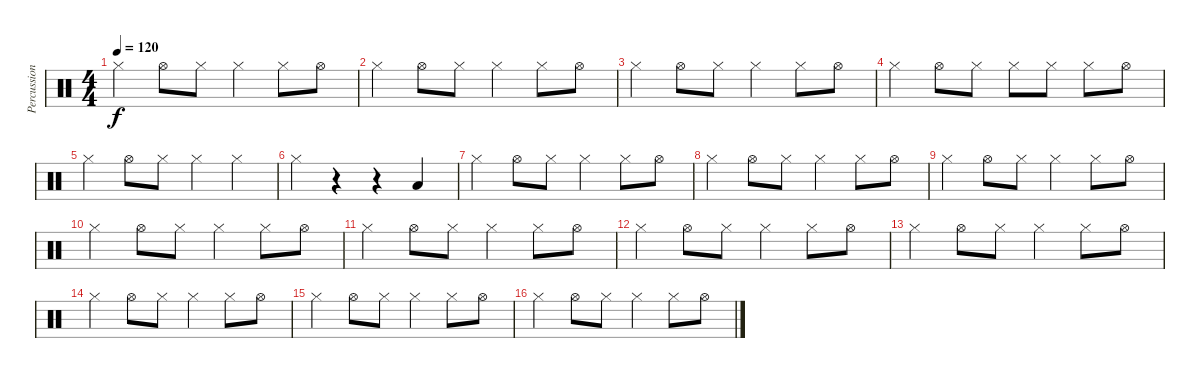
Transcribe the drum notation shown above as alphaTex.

\track ("Percussion" "Percussion") {instrument percussion}
\staff {score}
\articulation defaults
\ts (4 4)
\tempo 120
\clef neutral
\ks aminor "Hi-Hat (closed)".4{dy f} "Hi-Hat (open)".8 "Hi-Hat (closed)".8 "Hi-Hat (closed)".4 "Hi-Hat (closed)".8 "Hi-Hat (open)".8
|
"Hi-Hat (closed)".4 "Hi-Hat (open)".8 "Hi-Hat (closed)".8 "Hi-Hat (closed)".4 "Hi-Hat (closed)".8 "Hi-Hat (open)".8 |
"Hi-Hat (closed)".4 "Hi-Hat (open)".8 "Hi-Hat (closed)".8 "Hi-Hat (closed)".4 "Hi-Hat (closed)".8 "Hi-Hat (open)".8 |
"Hi-Hat (closed)".4 "Hi-Hat (open)".8 "Hi-Hat (closed)".8 "Hi-Hat (closed)".8 "Hi-Hat (closed)".8 "Hi-Hat (closed)".8 "Hi-Hat (open)".8 |
"Hi-Hat (closed)".4 "Hi-Hat (open)".8 "Hi-Hat (closed)".8 "Hi-Hat (closed)".4 "Hi-Hat (closed)".4 |
"Hi-Hat (closed)".4 r.4 r.4 "Low Floor Tom (hit)".4 |
"Hi-Hat (closed)".4 "Hi-Hat (open)".8 "Hi-Hat (closed)".8 "Hi-Hat (closed)".4 "Hi-Hat (closed)".8 "Hi-Hat (open)".8 |
"Hi-Hat (closed)".4 "Hi-Hat (open)".8 "Hi-Hat (closed)".8 "Hi-Hat (closed)".4 "Hi-Hat (closed)".8 "Hi-Hat (open)".8 |
"Hi-Hat (closed)".4 "Hi-Hat (open)".8 "Hi-Hat (closed)".8 "Hi-Hat (closed)".4 "Hi-Hat (closed)".8 "Hi-Hat (open)".8 |
"Hi-Hat (closed)".4 "Hi-Hat (open)".8 "Hi-Hat (closed)".8 "Hi-Hat (closed)".4 "Hi-Hat (closed)".8 "Hi-Hat (open)".8 |
"Hi-Hat (closed)".4 "Hi-Hat (open)".8 "Hi-Hat (closed)".8 "Hi-Hat (closed)".4 "Hi-Hat (closed)".8 "Hi-Hat (open)".8 |
"Hi-Hat (closed)".4 "Hi-Hat (open)".8 "Hi-Hat (closed)".8 "Hi-Hat (closed)".4 "Hi-Hat (closed)".8 "Hi-Hat (open)".8 |
"Hi-Hat (closed)".4 "Hi-Hat (open)".8 "Hi-Hat (closed)".8 "Hi-Hat (closed)".4 "Hi-Hat (closed)".8 "Hi-Hat (open)".8 |
"Hi-Hat (closed)".4 "Hi-Hat (open)".8 "Hi-Hat (closed)".8 "Hi-Hat (closed)".4 "Hi-Hat (closed)".8 "Hi-Hat (open)".8 |
"Hi-Hat (closed)".4 "Hi-Hat (open)".8 "Hi-Hat (closed)".8 "Hi-Hat (closed)".4 "Hi-Hat (closed)".8 "Hi-Hat (open)".8 |
"Hi-Hat (closed)".4 "Hi-Hat (open)".8 "Hi-Hat (closed)".8 "Hi-Hat (closed)".4 "Hi-Hat (closed)".8 "Hi-Hat (open)".8
